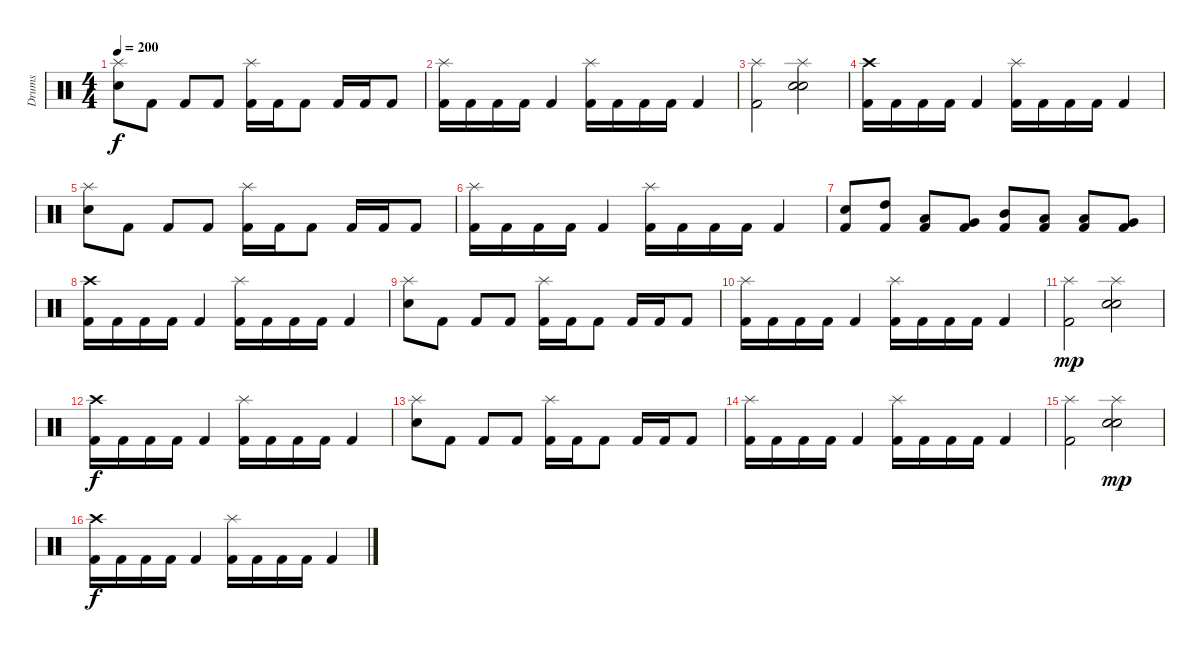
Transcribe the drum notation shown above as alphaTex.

\track ("Drums" "Drums") {instrument percussion}
\staff {score}
\articulation defaults
\ts (4 4)
\tempo 200
\clef neutral
\ks c
("Splash (hit)" "Electric Snare (hit)").8{dy f} "Kick (hit) 2".8 "Kick (hit) 2".8 "Kick (hit) 2".8 ("Splash (hit)" "Kick (hit) 2").16 "Kick (hit) 2".16 "Kick (hit) 2".8 "Kick (hit) 2".16 "Kick (hit) 2".16 "Kick (hit) 2".8 |
("Splash (hit)" "Kick (hit) 2").16 "Kick (hit) 2".16 "Kick (hit) 2".16 "Kick (hit) 2".16 "Kick (hit) 2".4 ("Splash (hit)" "Kick (hit) 2").16 "Kick (hit) 2".16 "Kick (hit) 2".16 "Kick (hit) 2".16 "Kick (hit) 2".4 |
("Splash (hit)" "Kick (hit) 2").2 ("Splash (hit)" "Electric Snare (hit)" "Snare (hit) 2").2 |
("Crash high (hit)" "Kick (hit) 2").16 "Kick (hit) 2".16 "Kick (hit) 2".16 "Kick (hit) 2".16 "Kick (hit) 2".4 ("Splash (hit)" "Kick (hit) 2").16 "Kick (hit) 2".16 "Kick (hit) 2".16 "Kick (hit) 2".16 "Kick (hit) 2".4 |
("Splash (hit)" "Electric Snare (hit)").8 "Kick (hit) 2".8 "Kick (hit) 2".8 "Kick (hit) 2".8 ("Splash (hit)" "Kick (hit) 2").16 "Kick (hit) 2".16 "Kick (hit) 2".8 "Kick (hit) 2".16 "Kick (hit) 2".16 "Kick (hit) 2".8 |
("Splash (hit)" "Kick (hit) 2").16 "Kick (hit) 2".16 "Kick (hit) 2".16 "Kick (hit) 2".16 "Kick (hit) 2".4 ("Splash (hit)" "Kick (hit) 2").16 "Kick (hit) 2".16 "Kick (hit) 2".16 "Kick (hit) 2".16 "Kick (hit) 2".4 |
("Electric Snare (hit)" "Kick (hit) 2").8 ("High Tom (hit)" "Kick (hit) 2").8 ("Low Tom (hit)" "Kick (hit) 2").8 ("Very Low Tom (hit)" "Kick (hit) 2").8 ("Mid Tom (hit)" "Kick (hit) 2").8 ("Low Tom (hit)" "Kick (hit) 2").8 ("Low Tom (hit)" "Kick (hit) 2").8 ("Very Low Tom (hit)" "Kick (hit) 2").8 |
("Crash high (hit)" "Kick (hit) 2").16 "Kick (hit) 2".16 "Kick (hit) 2".16 "Kick (hit) 2".16 "Kick (hit) 2".4 ("Splash (hit)" "Kick (hit) 2").16 "Kick (hit) 2".16 "Kick (hit) 2".16 "Kick (hit) 2".16 "Kick (hit) 2".4 |
("Splash (hit)" "Electric Snare (hit)").8 "Kick (hit) 2".8 "Kick (hit) 2".8 "Kick (hit) 2".8 ("Splash (hit)" "Kick (hit) 2").16 "Kick (hit) 2".16 "Kick (hit) 2".8 "Kick (hit) 2".16 "Kick (hit) 2".16 "Kick (hit) 2".8 |
("Splash (hit)" "Kick (hit) 2").16 "Kick (hit) 2".16 "Kick (hit) 2".16 "Kick (hit) 2".16 "Kick (hit) 2".4 ("Splash (hit)" "Kick (hit) 2").16 "Kick (hit) 2".16 "Kick (hit) 2".16 "Kick (hit) 2".16 "Kick (hit) 2".4 |
("Splash (hit)" "Kick (hit) 2").2{dy mp} ("Splash (hit)" "Electric Snare (hit)" "Snare (hit) 2").2 |
("Crash high (hit)" "Kick (hit) 2").16{dy f} "Kick (hit) 2".16 "Kick (hit) 2".16 "Kick (hit) 2".16 "Kick (hit) 2".4 ("Splash (hit)" "Kick (hit) 2").16 "Kick (hit) 2".16 "Kick (hit) 2".16 "Kick (hit) 2".16 "Kick (hit) 2".4 |
("Splash (hit)" "Electric Snare (hit)").8 "Kick (hit) 2".8 "Kick (hit) 2".8 "Kick (hit) 2".8 ("Splash (hit)" "Kick (hit) 2").16 "Kick (hit) 2".16 "Kick (hit) 2".8 "Kick (hit) 2".16 "Kick (hit) 2".16 "Kick (hit) 2".8 |
("Splash (hit)" "Kick (hit) 2").16 "Kick (hit) 2".16 "Kick (hit) 2".16 "Kick (hit) 2".16 "Kick (hit) 2".4 ("Splash (hit)" "Kick (hit) 2").16 "Kick (hit) 2".16 "Kick (hit) 2".16 "Kick (hit) 2".16 "Kick (hit) 2".4 |
("Splash (hit)" "Kick (hit) 2").2 ("Splash (hit)" "Electric Snare (hit)" "Snare (hit) 2").2{dy mp} |
("Crash high (hit)" "Kick (hit) 2").16{dy f} "Kick (hit) 2".16 "Kick (hit) 2".16 "Kick (hit) 2".16 "Kick (hit) 2".4 ("Splash (hit)" "Kick (hit) 2").16 "Kick (hit) 2".16 "Kick (hit) 2".16 "Kick (hit) 2".16 "Kick (hit) 2".4
